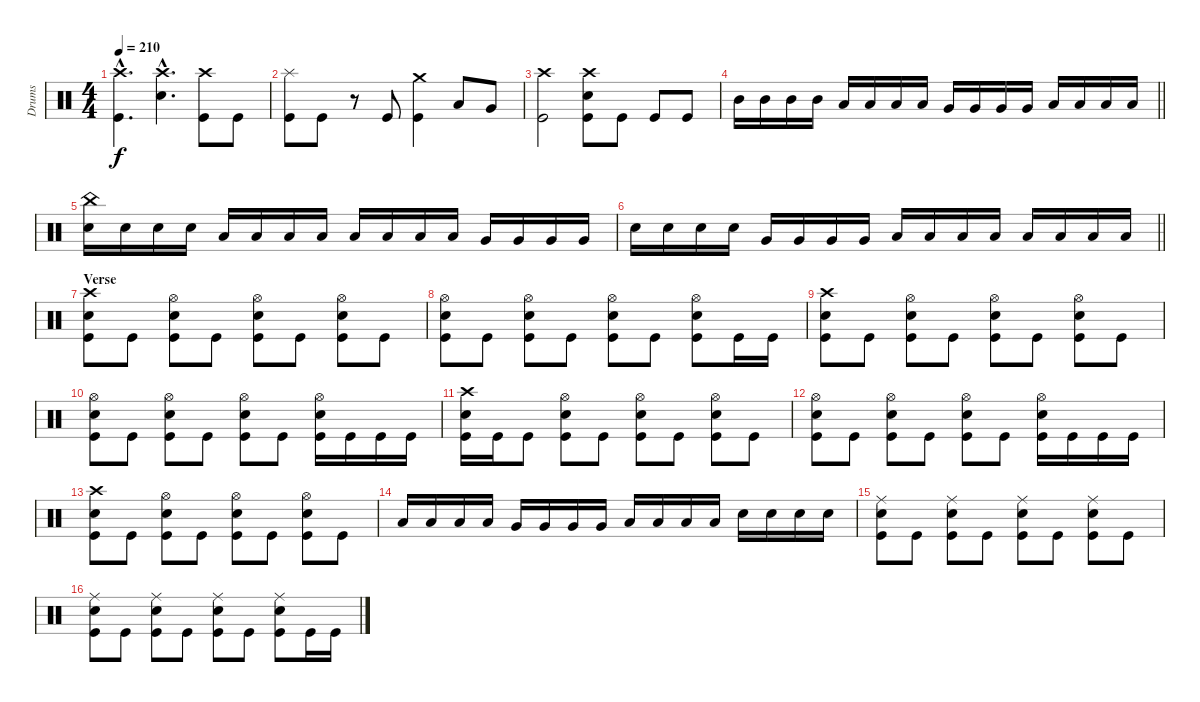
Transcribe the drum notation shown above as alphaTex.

\track ("Drums" "Drums") {instrument percussion}
\staff {score}
\articulation defaults
\ts (4 4)
\tempo 210
\clef neutral
\ks c
("Crash high (hit)"{hac} "Kick (hit)"{hac}).4{d dy f} ("Crash high (hit)"{hac} "Snare (hit) 2"{hac}).4{d} ("Crash high (hit)" "Kick (hit)").8 "Kick (hit)".8 |
("Splash (hit)" "Kick (hit)").8 "Kick (hit)".8 r.8 "Kick (hit)".8 ("Crash medium (hit)" "Kick (hit)").4 "Low Tom (hit)".8 "Very Low Tom (hit)".8 |
("Crash high (hit)" "Kick (hit)").2 ("Crash high (hit)" "Snare (hit) 2" "Kick (hit)").8 "Kick (hit)".8 "Kick (hit)".8 "Kick (hit)".8 |
\barLineRight lightlight "Mid Tom (hit)".16 "Mid Tom (hit)".16 "Mid Tom (hit)".16 "Mid Tom (hit)".16 "Low Tom (hit)".16 "Low Tom (hit)".16 "Low Tom (hit)".16 "Low Tom (hit)".16 "Very Low Tom (hit)".16 "Very Low Tom (hit)".16 "Very Low Tom (hit)".16 "Very Low Tom (hit)".16 "Low Floor Tom (hit)".16 "Low Floor Tom (hit)".16 "Low Floor Tom (hit)".16 "Low Floor Tom (hit)".16
|
("China (hit)" "Electric Snare (hit)").16 "Electric Snare (hit)".16 "Electric Snare (hit)".16 "Electric Snare (hit)".16 "Low Tom (hit)".16 "Low Tom (hit)".16 "Low Tom (hit)".16 "Low Tom (hit)".16 "Low Tom (hit)".16 "Low Tom (hit)".16 "Low Tom (hit)".16 "Low Tom (hit)".16 "Very Low Tom (hit)".16 "Very Low Tom (hit)".16 "Very Low Tom (hit)".16 "Very Low Tom (hit)".16 |
\barLineRight lightlight "Electric Snare (hit)".16 "Electric Snare (hit)".16 "Electric Snare (hit)".16 "Electric Snare (hit)".16 "Very Low Tom (hit)".16 "Very Low Tom (hit)".16 "Very Low Tom (hit)".16 "Very Low Tom (hit)".16 "Low Floor Tom (hit)".16 "Low Floor Tom (hit)".16 "Low Floor Tom (hit)".16 "Low Floor Tom (hit)".16 "Low Floor Tom (hit)".16 "Low Floor Tom (hit)".16 "Low Floor Tom (hit)".16 "Low Floor Tom (hit)".16
|
\section ("" "Verse")
("Crash high (hit)" "Electric Snare (hit)" "Kick (hit)").8 "Kick (hit)".8 ("Hi-Hat (open)" "Electric Snare (hit)" "Kick (hit)").8 "Kick (hit)".8 ("Hi-Hat (open)" "Electric Snare (hit)" "Kick (hit)").8 "Kick (hit)".8 ("Hi-Hat (open)" "Electric Snare (hit)" "Kick (hit)").8 "Kick (hit)".8 |
("Hi-Hat (open)" "Electric Snare (hit)" "Kick (hit)").8 "Kick (hit)".8 ("Hi-Hat (open)" "Electric Snare (hit)" "Kick (hit)").8 "Kick (hit)".8 ("Hi-Hat (open)" "Electric Snare (hit)" "Kick (hit)").8 "Kick (hit)".8 ("Hi-Hat (open)" "Electric Snare (hit)" "Kick (hit)").8 "Kick (hit)".16 "Kick (hit)".16 |
("Crash high (hit)" "Electric Snare (hit)" "Kick (hit)").8 "Kick (hit)".8 ("Hi-Hat (open)" "Electric Snare (hit)" "Kick (hit)").8 "Kick (hit)".8 ("Hi-Hat (open)" "Electric Snare (hit)" "Kick (hit)").8 "Kick (hit)".8 ("Hi-Hat (open)" "Electric Snare (hit)" "Kick (hit)").8 "Kick (hit)".8 |
("Hi-Hat (open)" "Electric Snare (hit)" "Kick (hit)").8 "Kick (hit)".8 ("Hi-Hat (open)" "Electric Snare (hit)" "Kick (hit)").8 "Kick (hit)".8 ("Hi-Hat (open)" "Electric Snare (hit)" "Kick (hit)").8 "Kick (hit)".8 ("Hi-Hat (open)" "Electric Snare (hit)" "Kick (hit)").16 "Kick (hit)".16 "Kick (hit)".16 "Kick (hit)".16 |
("Crash high (hit)" "Electric Snare (hit)" "Kick (hit)").16 "Kick (hit)".16 "Kick (hit)".8 ("Hi-Hat (open)" "Electric Snare (hit)" "Kick (hit)").8 "Kick (hit)".8 ("Hi-Hat (open)" "Electric Snare (hit)" "Kick (hit)").8 "Kick (hit)".8 ("Hi-Hat (open)" "Electric Snare (hit)" "Kick (hit)").8 "Kick (hit)".8 |
("Hi-Hat (open)" "Electric Snare (hit)" "Kick (hit)").8 "Kick (hit)".8 ("Hi-Hat (open)" "Electric Snare (hit)" "Kick (hit)").8 "Kick (hit)".8 ("Hi-Hat (open)" "Electric Snare (hit)" "Kick (hit)").8 "Kick (hit)".8 ("Hi-Hat (open)" "Electric Snare (hit)" "Kick (hit)").16 "Kick (hit)".16 "Kick (hit)".16 "Kick (hit)".16 |
("Crash high (hit)" "Electric Snare (hit)" "Kick (hit)").8 "Kick (hit)".8 ("Hi-Hat (open)" "Electric Snare (hit)" "Kick (hit)").8 "Kick (hit)".8 ("Hi-Hat (open)" "Electric Snare (hit)" "Kick (hit)").8 "Kick (hit)".8 ("Hi-Hat (open)" "Electric Snare (hit)" "Kick (hit)").8 "Kick (hit)".8 |
"Low Tom (hit)".16 "Low Tom (hit)".16 "Low Tom (hit)".16 "Low Tom (hit)".16 "Very Low Tom (hit)".16 "Very Low Tom (hit)".16 "Very Low Tom (hit)".16 "Very Low Tom (hit)".16 "Low Floor Tom (hit)".16 "Low Floor Tom (hit)".16 "Low Floor Tom (hit)".16 "Low Floor Tom (hit)".16 "Snare (hit) 2".16 "Snare (hit) 2".16 "Snare (hit) 2".16 "Snare (hit) 2".16 |
("Ride (middle)" "Electric Snare (hit)" "Kick (hit)").8 "Kick (hit)".8 ("Ride (middle)" "Electric Snare (hit)" "Kick (hit)").8 "Kick (hit)".8 ("Ride (middle)" "Electric Snare (hit)" "Kick (hit)").8 "Kick (hit)".8 ("Ride (middle)" "Electric Snare (hit)" "Kick (hit)").8 "Kick (hit)".8 |
("Ride (middle)" "Electric Snare (hit)" "Kick (hit)").8 "Kick (hit)".8 ("Ride (middle)" "Electric Snare (hit)" "Kick (hit)").8 "Kick (hit)".8 ("Ride (middle)" "Electric Snare (hit)" "Kick (hit)").8 "Kick (hit)".8 ("Ride (middle)" "Electric Snare (hit)" "Kick (hit)").8 "Kick (hit)".16 "Kick (hit)".16
